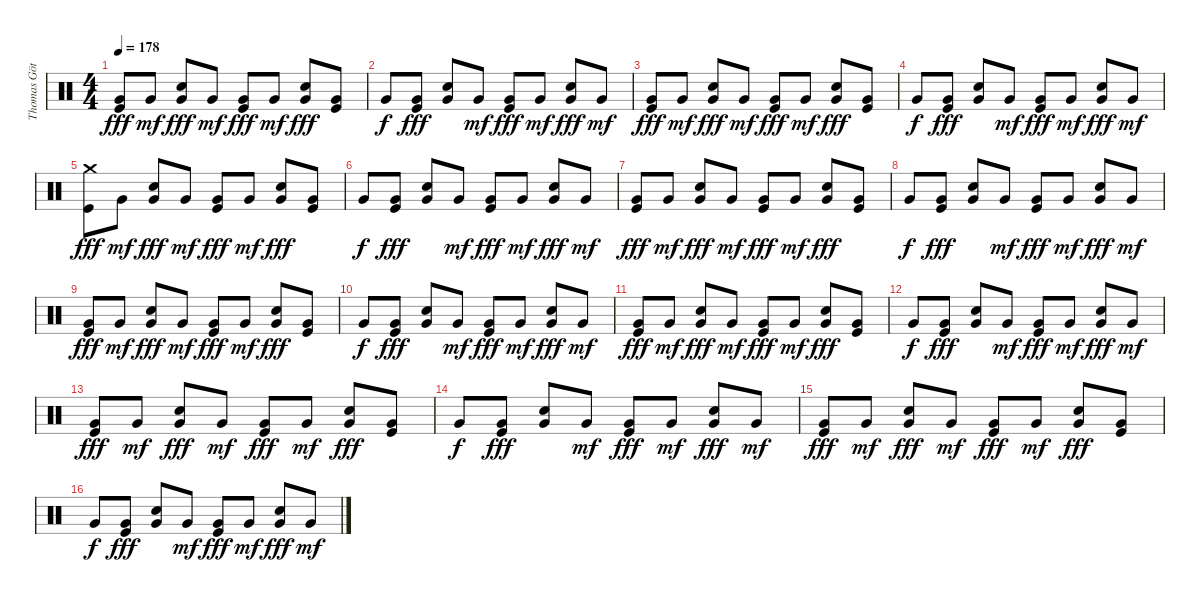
\track ("Thomas Götz" "Thomas Göt") {instrument percussion}
\staff {score}
\articulation defaults
\ts (4 4)
\tempo 178
\clef neutral
\ks c
("Very Low Tom (hit)" "Kick (hit)").8{dy fff} "Very Low Tom (hit)".8{dy mf} ("Very Low Tom (hit)" "Electric Snare (hit)").8{dy fff} "Very Low Tom (hit)".8{dy mf} ("Very Low Tom (hit)" "Kick (hit)").8{dy fff} "Very Low Tom (hit)".8{dy mf} ("Very Low Tom (hit)" "Electric Snare (hit)").8{dy fff} ("Very Low Tom (hit)" "Kick (hit)").8 |
"Very Low Tom (hit)".8{dy f} ("Very Low Tom (hit)" "Kick (hit)").8{dy fff} ("Very Low Tom (hit)" "Electric Snare (hit)").8 "Very Low Tom (hit)".8{dy mf} ("Very Low Tom (hit)" "Kick (hit)").8{dy fff} "Very Low Tom (hit)".8{dy mf} ("Very Low Tom (hit)" "Electric Snare (hit)").8{dy fff} "Very Low Tom (hit)".8{dy mf} |
("Very Low Tom (hit)" "Kick (hit)").8{dy fff} "Very Low Tom (hit)".8{dy mf} ("Very Low Tom (hit)" "Electric Snare (hit)").8{dy fff} "Very Low Tom (hit)".8{dy mf} ("Very Low Tom (hit)" "Kick (hit)").8{dy fff} "Very Low Tom (hit)".8{dy mf} ("Very Low Tom (hit)" "Electric Snare (hit)").8{dy fff} ("Very Low Tom (hit)" "Kick (hit)").8 |
"Very Low Tom (hit)".8{dy f} ("Very Low Tom (hit)" "Kick (hit)").8{dy fff} ("Very Low Tom (hit)" "Electric Snare (hit)").8 "Very Low Tom (hit)".8{dy mf} ("Very Low Tom (hit)" "Kick (hit)").8{dy fff} "Very Low Tom (hit)".8{dy mf} ("Very Low Tom (hit)" "Electric Snare (hit)").8{dy fff} "Very Low Tom (hit)".8{dy mf} |
("Crash medium (hit)" "Kick (hit)").8{dy fff} "Very Low Tom (hit)".8{dy mf} ("Very Low Tom (hit)" "Electric Snare (hit)").8{dy fff} "Very Low Tom (hit)".8{dy mf} ("Very Low Tom (hit)" "Kick (hit)").8{dy fff} "Very Low Tom (hit)".8{dy mf} ("Very Low Tom (hit)" "Electric Snare (hit)").8{dy fff} ("Very Low Tom (hit)" "Kick (hit)").8 |
"Very Low Tom (hit)".8{dy f} ("Very Low Tom (hit)" "Kick (hit)").8{dy fff} ("Very Low Tom (hit)" "Electric Snare (hit)").8 "Very Low Tom (hit)".8{dy mf} ("Very Low Tom (hit)" "Kick (hit)").8{dy fff} "Very Low Tom (hit)".8{dy mf} ("Very Low Tom (hit)" "Electric Snare (hit)").8{dy fff} "Very Low Tom (hit)".8{dy mf} |
("Very Low Tom (hit)" "Kick (hit)").8{dy fff} "Very Low Tom (hit)".8{dy mf} ("Very Low Tom (hit)" "Electric Snare (hit)").8{dy fff} "Very Low Tom (hit)".8{dy mf} ("Very Low Tom (hit)" "Kick (hit)").8{dy fff} "Very Low Tom (hit)".8{dy mf} ("Very Low Tom (hit)" "Electric Snare (hit)").8{dy fff} ("Very Low Tom (hit)" "Kick (hit)").8 |
"Very Low Tom (hit)".8{dy f} ("Very Low Tom (hit)" "Kick (hit)").8{dy fff} ("Very Low Tom (hit)" "Electric Snare (hit)").8 "Very Low Tom (hit)".8{dy mf} ("Very Low Tom (hit)" "Kick (hit)").8{dy fff} "Very Low Tom (hit)".8{dy mf} ("Very Low Tom (hit)" "Electric Snare (hit)").8{dy fff} "Very Low Tom (hit)".8{dy mf} |
("Very Low Tom (hit)" "Kick (hit)").8{dy fff} "Very Low Tom (hit)".8{dy mf} ("Very Low Tom (hit)" "Electric Snare (hit)").8{dy fff} "Very Low Tom (hit)".8{dy mf} ("Very Low Tom (hit)" "Kick (hit)").8{dy fff} "Very Low Tom (hit)".8{dy mf} ("Very Low Tom (hit)" "Electric Snare (hit)").8{dy fff} ("Very Low Tom (hit)" "Kick (hit)").8 |
"Very Low Tom (hit)".8{dy f} ("Very Low Tom (hit)" "Kick (hit)").8{dy fff} ("Very Low Tom (hit)" "Electric Snare (hit)").8 "Very Low Tom (hit)".8{dy mf} ("Very Low Tom (hit)" "Kick (hit)").8{dy fff} "Very Low Tom (hit)".8{dy mf} ("Very Low Tom (hit)" "Electric Snare (hit)").8{dy fff} "Very Low Tom (hit)".8{dy mf} |
("Very Low Tom (hit)" "Kick (hit)").8{dy fff} "Very Low Tom (hit)".8{dy mf} ("Very Low Tom (hit)" "Electric Snare (hit)").8{dy fff} "Very Low Tom (hit)".8{dy mf} ("Very Low Tom (hit)" "Kick (hit)").8{dy fff} "Very Low Tom (hit)".8{dy mf} ("Very Low Tom (hit)" "Electric Snare (hit)").8{dy fff} ("Very Low Tom (hit)" "Kick (hit)").8 |
"Very Low Tom (hit)".8{dy f} ("Very Low Tom (hit)" "Kick (hit)").8{dy fff} ("Very Low Tom (hit)" "Electric Snare (hit)").8 "Very Low Tom (hit)".8{dy mf} ("Very Low Tom (hit)" "Kick (hit)").8{dy fff} "Very Low Tom (hit)".8{dy mf} ("Very Low Tom (hit)" "Electric Snare (hit)").8{dy fff} "Very Low Tom (hit)".8{dy mf} |
("Very Low Tom (hit)" "Kick (hit)").8{dy fff} "Very Low Tom (hit)".8{dy mf} ("Very Low Tom (hit)" "Electric Snare (hit)").8{dy fff} "Very Low Tom (hit)".8{dy mf} ("Very Low Tom (hit)" "Kick (hit)").8{dy fff} "Very Low Tom (hit)".8{dy mf} ("Very Low Tom (hit)" "Electric Snare (hit)").8{dy fff} ("Very Low Tom (hit)" "Kick (hit)").8 |
"Very Low Tom (hit)".8{dy f} ("Very Low Tom (hit)" "Kick (hit)").8{dy fff} ("Very Low Tom (hit)" "Electric Snare (hit)").8 "Very Low Tom (hit)".8{dy mf} ("Very Low Tom (hit)" "Kick (hit)").8{dy fff} "Very Low Tom (hit)".8{dy mf} ("Very Low Tom (hit)" "Electric Snare (hit)").8{dy fff} "Very Low Tom (hit)".8{dy mf} |
("Very Low Tom (hit)" "Kick (hit)").8{dy fff} "Very Low Tom (hit)".8{dy mf} ("Very Low Tom (hit)" "Electric Snare (hit)").8{dy fff} "Very Low Tom (hit)".8{dy mf} ("Very Low Tom (hit)" "Kick (hit)").8{dy fff} "Very Low Tom (hit)".8{dy mf} ("Very Low Tom (hit)" "Electric Snare (hit)").8{dy fff} ("Very Low Tom (hit)" "Kick (hit)").8 |
"Very Low Tom (hit)".8{dy f} ("Very Low Tom (hit)" "Kick (hit)").8{dy fff} ("Very Low Tom (hit)" "Electric Snare (hit)").8 "Very Low Tom (hit)".8{dy mf} ("Very Low Tom (hit)" "Kick (hit)").8{dy fff} "Very Low Tom (hit)".8{dy mf} ("Very Low Tom (hit)" "Electric Snare (hit)").8{dy fff} "Very Low Tom (hit)".8{dy mf}
